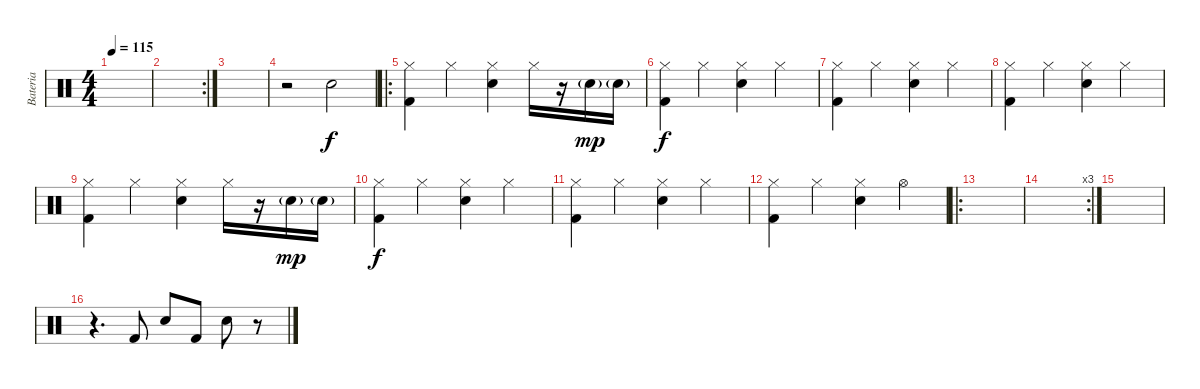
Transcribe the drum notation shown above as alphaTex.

\track ("Bateria" "Bateria") {instrument percussion}
\staff {score}
\articulation defaults
\ts (4 4)
\tempo 115
\clef neutral
\ks c
|
\rc 2
|
|
r.2 "Electric Snare (hit)".2 |
\ro
("Hi-Hat (closed)" "Kick (hit) 2").4 "Hi-Hat (closed)".4 ("Hi-Hat (closed)" "Electric Snare (hit)").4 "Hi-Hat (closed)".16 r.16 "Electric Snare (hit)"{g}.16{dy mp} "Electric Snare (hit)"{g}.16 |
("Hi-Hat (closed)" "Kick (hit) 2").4{dy f} "Hi-Hat (closed)".4 ("Hi-Hat (closed)" "Electric Snare (hit)").4 "Hi-Hat (closed)".4 |
("Hi-Hat (closed)" "Kick (hit) 2").4 "Hi-Hat (closed)".4 ("Hi-Hat (closed)" "Electric Snare (hit)").4 "Hi-Hat (closed)".4 |
("Hi-Hat (closed)" "Kick (hit) 2").4 "Hi-Hat (closed)".4 ("Hi-Hat (closed)" "Electric Snare (hit)").4 "Hi-Hat (closed)".4 |
("Hi-Hat (closed)" "Kick (hit) 2").4 "Hi-Hat (closed)".4 ("Hi-Hat (closed)" "Electric Snare (hit)").4 "Hi-Hat (closed)".16 r.16 "Electric Snare (hit)"{g}.16{dy mp} "Electric Snare (hit)"{g}.16 |
("Hi-Hat (closed)" "Kick (hit) 2").4{dy f} "Hi-Hat (closed)".4 ("Hi-Hat (closed)" "Electric Snare (hit)").4 "Hi-Hat (closed)".4 |
("Hi-Hat (closed)" "Kick (hit) 2").4 "Hi-Hat (closed)".4 ("Hi-Hat (closed)" "Electric Snare (hit)").4 "Hi-Hat (closed)".4 |
("Hi-Hat (closed)" "Kick (hit) 2").4 "Hi-Hat (closed)".4 ("Hi-Hat (closed)" "Electric Snare (hit)").4 "Hi-Hat (open)".4 |
\ro
|
\rc 3
|
|
r.4{d} "Kick (hit) 2".8 "Electric Snare (hit)".8 "Kick (hit) 2".8 "Electric Snare (hit)".8 r.8
